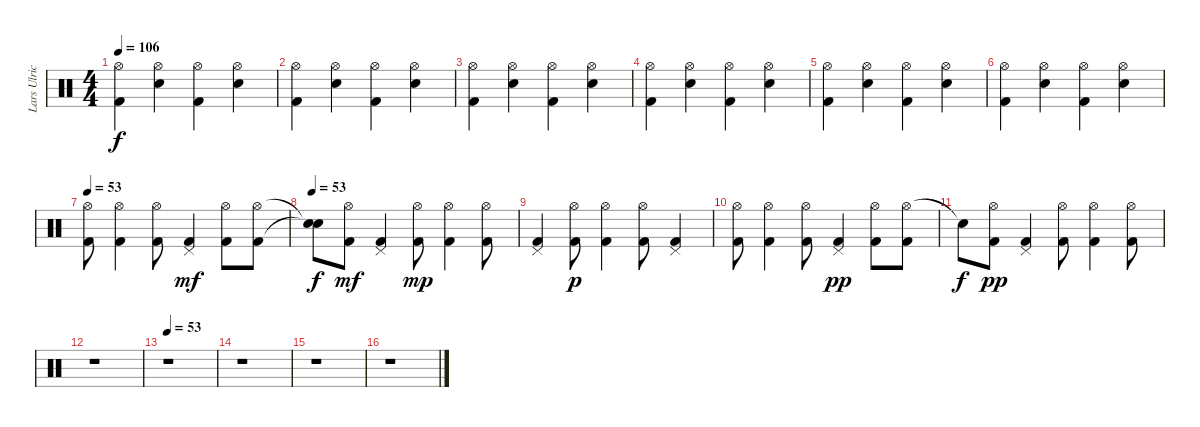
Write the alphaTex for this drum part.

\track ("Lars Ulrich [Drums]" "Lars Ulric") {instrument percussion}
\staff {score}
\articulation defaults
\ts (4 4)
\tempo 106
\clef neutral
\ks c
("Hi-Hat (open)" "Kick (hit) 2").4{dy f} ("Hi-Hat (open)" "Electric Snare (hit)").4 ("Hi-Hat (open)" "Kick (hit) 2").4 ("Hi-Hat (open)" "Electric Snare (hit)").4 |
("Hi-Hat (open)" "Kick (hit) 2").4 ("Hi-Hat (open)" "Electric Snare (hit)").4 ("Hi-Hat (open)" "Kick (hit) 2").4 ("Hi-Hat (open)" "Electric Snare (hit)").4 |
("Hi-Hat (open)" "Kick (hit) 2").4 ("Hi-Hat (open)" "Electric Snare (hit)").4 ("Hi-Hat (open)" "Kick (hit) 2").4 ("Hi-Hat (open)" "Electric Snare (hit)").4 |
("Hi-Hat (open)" "Kick (hit) 2").4 ("Hi-Hat (open)" "Electric Snare (hit)").4 ("Hi-Hat (open)" "Kick (hit) 2").4 ("Hi-Hat (open)" "Electric Snare (hit)").4 |
("Hi-Hat (open)" "Kick (hit) 2").4 ("Hi-Hat (open)" "Electric Snare (hit)").4 ("Hi-Hat (open)" "Kick (hit) 2").4 ("Hi-Hat (open)" "Electric Snare (hit)").4 |
("Hi-Hat (open)" "Kick (hit) 2").4 ("Hi-Hat (open)" "Electric Snare (hit)").4 ("Hi-Hat (open)" "Kick (hit) 2").4 ("Hi-Hat (open)" "Electric Snare (hit)").4 |
\tempo 53
("Hi-Hat (open)" "Kick (hit) 2").8 ("Hi-Hat (open)" "Kick (hit) 2").4 ("Hi-Hat (open)" "Kick (hit) 2").8 ("Pedal Hi-Hat (hit)" "Kick (hit) 2").4{dy mf} ("Hi-Hat (open)" "Kick (hit) 2").8 ("Hi-Hat (open)" "Kick (hit) 2").8 |
\tempo 53
("Snare (hit)"{t} "Snare (hit)"{t}).8{dy f} ("Hi-Hat (open)" "Kick (hit) 2").8{dy mf} ("Pedal Hi-Hat (hit)" "Kick (hit) 2").4 ("Hi-Hat (open)" "Kick (hit) 2").8{dy mp} ("Hi-Hat (open)" "Kick (hit) 2").4 ("Hi-Hat (open)" "Kick (hit) 2").8 |
("Pedal Hi-Hat (hit)" "Kick (hit) 2").4 ("Hi-Hat (open)" "Kick (hit) 2").8{dy p} ("Hi-Hat (open)" "Kick (hit) 2").4 ("Hi-Hat (open)" "Kick (hit) 2").8 ("Pedal Hi-Hat (hit)" "Kick (hit) 2").4 |
("Hi-Hat (open)" "Kick (hit) 2").8 ("Hi-Hat (open)" "Kick (hit) 2").4 ("Hi-Hat (open)" "Kick (hit) 2").8 ("Pedal Hi-Hat (hit)" "Kick (hit) 2").4{dy pp} ("Hi-Hat (open)" "Kick (hit) 2").8 ("Hi-Hat (open)" "Kick (hit) 2").8 |
"Snare (hit)"{t}.8{dy f} ("Hi-Hat (open)" "Kick (hit) 2").8{dy pp} ("Pedal Hi-Hat (hit)" "Kick (hit) 2").4 ("Hi-Hat (open)" "Kick (hit) 2").8 ("Hi-Hat (open)" "Kick (hit) 2").4 ("Hi-Hat (open)" "Kick (hit) 2").8 |
r.1 |
\tempo 53
r.1 |
r.1 |
r.1 |
r.1
